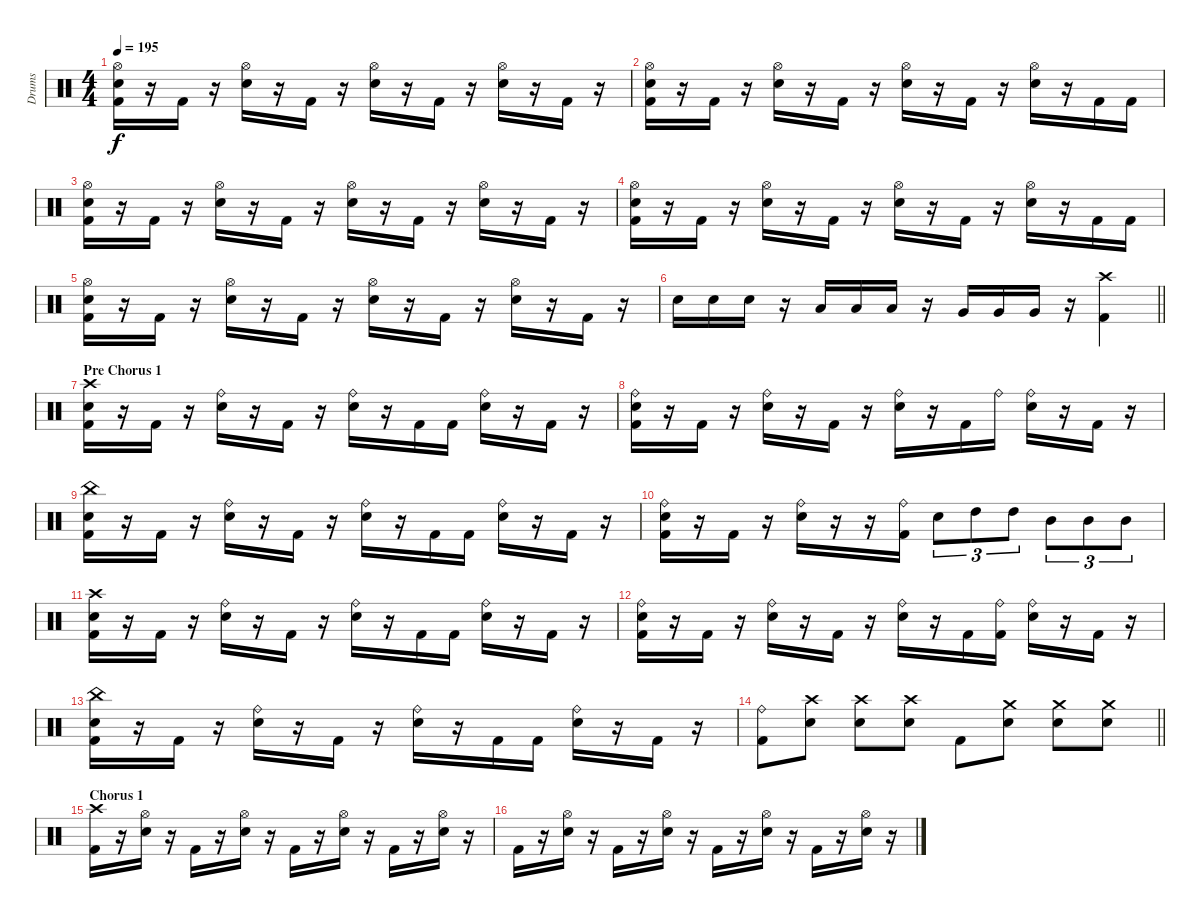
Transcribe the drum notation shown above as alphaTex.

\track ("Drums" "Drums") {instrument percussion}
\staff {score}
\articulation defaults
\ts (4 4)
\tempo 195
\clef neutral
\ks c
("Hi-Hat (open)" "Electric Snare (hit)" "Kick (hit) 2").16{dy f} r.16 "Kick (hit) 2".16 r.16 ("Hi-Hat (open)" "Electric Snare (hit)").16 r.16 "Kick (hit) 2".16 r.16 ("Hi-Hat (open)" "Electric Snare (hit)").16 r.16 "Kick (hit) 2".16 r.16 ("Hi-Hat (open)" "Electric Snare (hit)").16 r.16 "Kick (hit) 2".16 r.16 |
("Hi-Hat (open)" "Electric Snare (hit)" "Kick (hit) 2").16 r.16 "Kick (hit) 2".16 r.16 ("Hi-Hat (open)" "Electric Snare (hit)").16 r.16 "Kick (hit) 2".16 r.16 ("Hi-Hat (open)" "Electric Snare (hit)").16 r.16 "Kick (hit) 2".16 r.16 ("Hi-Hat (open)" "Electric Snare (hit)").16 r.16 "Kick (hit) 2".16 "Kick (hit) 2".16 |
("Hi-Hat (open)" "Electric Snare (hit)" "Kick (hit) 2").16 r.16 "Kick (hit) 2".16 r.16 ("Hi-Hat (open)" "Electric Snare (hit)").16 r.16 "Kick (hit) 2".16 r.16 ("Hi-Hat (open)" "Electric Snare (hit)").16 r.16 "Kick (hit) 2".16 r.16 ("Hi-Hat (open)" "Electric Snare (hit)").16 r.16 "Kick (hit) 2".16 r.16 |
("Hi-Hat (open)" "Electric Snare (hit)" "Kick (hit) 2").16 r.16 "Kick (hit) 2".16 r.16 ("Hi-Hat (open)" "Electric Snare (hit)").16 r.16 "Kick (hit) 2".16 r.16 ("Hi-Hat (open)" "Electric Snare (hit)").16 r.16 "Kick (hit) 2".16 r.16 ("Hi-Hat (open)" "Electric Snare (hit)").16 r.16 "Kick (hit) 2".16 "Kick (hit) 2".16 |
("Hi-Hat (open)" "Electric Snare (hit)" "Kick (hit) 2").16 r.16 "Kick (hit) 2".16 r.16 ("Hi-Hat (open)" "Electric Snare (hit)").16 r.16 "Kick (hit) 2".16 r.16 ("Hi-Hat (open)" "Electric Snare (hit)").16 r.16 "Kick (hit) 2".16 r.16 ("Hi-Hat (open)" "Electric Snare (hit)").16 r.16 "Kick (hit) 2".16 r.16 |
\barLineRight lightlight "Electric Snare (hit)".16 "Electric Snare (hit)".16 "Electric Snare (hit)".16
r.16 "Low Tom (hit)".16 "Low Tom (hit)".16 "Low Tom (hit)".16 r.16 "Very Low Tom (hit)".16 "Very Low Tom (hit)".16 "Very Low Tom (hit)".16 r.16 ("Crash high (hit)" "Kick (hit) 2").4 |
\section ("" "Pre Chorus 1")
("Crash high (hit)" "Electric Snare (hit)" "Kick (hit) 2").16 r.16 "Kick (hit) 2".16 r.16 ("Ride (bell)" "Electric Snare (hit)").16 r.16 "Kick (hit) 2".16 r.16 ("Ride (bell)" "Electric Snare (hit)").16 r.16 "Kick (hit) 2".16 "Kick (hit) 2".16 ("Ride (bell)" "Electric Snare (hit)").16 r.16 "Kick (hit) 2".16 r.16 |
("Ride (bell)" "Electric Snare (hit)" "Kick (hit) 2").16 r.16 "Kick (hit) 2".16 r.16 ("Ride (bell)" "Electric Snare (hit)").16 r.16 "Kick (hit) 2".16 r.16 ("Ride (bell)" "Electric Snare (hit)").16 r.16 "Kick (hit) 2".16 "Ride (bell)".16 ("Ride (bell)" "Electric Snare (hit)").16 r.16 "Kick (hit) 2".16 r.16 |
("China (hit)" "Electric Snare (hit)" "Kick (hit) 2").16 r.16 "Kick (hit) 2".16 r.16 ("Ride (bell)" "Electric Snare (hit)").16 r.16 "Kick (hit) 2".16 r.16 ("Ride (bell)" "Electric Snare (hit)").16 r.16 "Kick (hit) 2".16 "Kick (hit) 2".16 ("Ride (bell)" "Electric Snare (hit)").16 r.16 "Kick (hit) 2".16 r.16 |
("Ride (bell)" "Electric Snare (hit)" "Kick (hit) 2").16 r.16 "Kick (hit) 2".16 r.16 ("Ride (bell)" "Electric Snare (hit)").16 r.16 r.16 ("Ride (bell)" "Kick (hit) 2").16 "Electric Snare (hit)".8{tu (3 2)} "High Tom (hit)".8{tu (3 2)} "High Tom (hit)".8{tu (3 2)} "Mid Tom (hit)".8{tu (3 2)} "Mid Tom (hit)".8{tu (3 2)} "Mid Tom (hit)".8{tu (3 2)} |
("Crash high (hit)" "Electric Snare (hit)" "Kick (hit) 2").16 r.16 "Kick (hit) 2".16 r.16 ("Ride (bell)" "Electric Snare (hit)").16 r.16 "Kick (hit) 2".16 r.16 ("Ride (bell)" "Electric Snare (hit)").16 r.16 "Kick (hit) 2".16 "Kick (hit) 2".16 ("Ride (bell)" "Electric Snare (hit)").16 r.16 "Kick (hit) 2".16 r.16 |
("Ride (bell)" "Electric Snare (hit)" "Kick (hit) 2").16 r.16 "Kick (hit) 2".16 r.16 ("Ride (bell)" "Electric Snare (hit)").16 r.16 "Kick (hit) 2".16 r.16 ("Ride (bell)" "Electric Snare (hit)").16 r.16 "Kick (hit) 2".16 ("Ride (bell)" "Kick (hit) 2").16 ("Ride (bell)" "Electric Snare (hit)").16 r.16 "Kick (hit) 2".16 r.16 |
("China (hit)" "Electric Snare (hit)" "Kick (hit) 2").16 r.16 "Kick (hit) 2".16 r.16 ("Ride (bell)" "Electric Snare (hit)").16 r.16 "Kick (hit) 2".16 r.16 ("Ride (bell)" "Electric Snare (hit)").16 r.16 "Kick (hit) 2".16 "Kick (hit) 2".16 ("Ride (bell)" "Electric Snare (hit)").16 r.16 "Kick (hit) 2".16 r.16 |
\barLineRight lightlight
("Ride (bell)" "Kick (hit) 2").8 ("Crash high (hit)" "Electric Snare (hit)").8 ("Crash high (hit)" "Electric Snare (hit)").8 ("Crash high (hit)" "Electric Snare (hit)").8 "Kick (hit) 2".8 ("Crash medium (hit)" "Electric Snare (hit)").8 ("Crash medium (hit)" "Electric Snare (hit)").8 ("Crash medium (hit)" "Electric Snare (hit)").8 |
\section ("" "Chorus 1")
("Crash high (hit)" "Kick (hit) 2").16 r.16 ("Hi-Hat (open)" "Electric Snare (hit)").16 r.16 "Kick (hit) 2".16 r.16 ("Hi-Hat (open)" "Electric Snare (hit)").16 r.16 "Kick (hit) 2".16 r.16 ("Hi-Hat (open)" "Electric Snare (hit)").16 r.16 "Kick (hit) 2".16 r.16 ("Hi-Hat (open)" "Electric Snare (hit)").16 r.16 |
"Kick (hit) 2".16 r.16 ("Hi-Hat (open)" "Electric Snare (hit)").16 r.16 "Kick (hit) 2".16 r.16 ("Hi-Hat (open)" "Electric Snare (hit)").16 r.16 "Kick (hit) 2".16 r.16 ("Hi-Hat (open)" "Electric Snare (hit)").16 r.16 "Kick (hit) 2".16 r.16 ("Hi-Hat (open)" "Electric Snare (hit)").16 r.16
